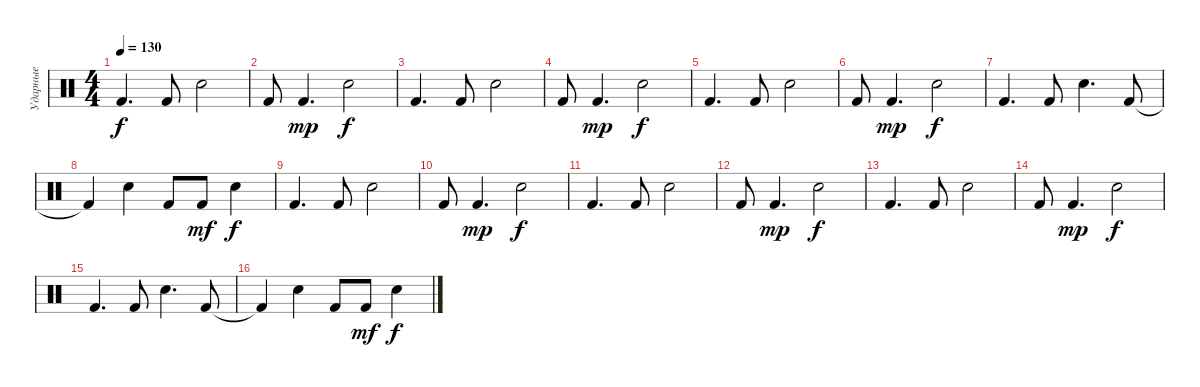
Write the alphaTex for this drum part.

\track ("Ударные" "Ударные") {instrument percussion}
\staff {score}
\articulation defaults
\ts (4 4)
\tempo 130
\clef neutral
\ks c "Kick (hit) 2".4{d dy f} "Kick (hit) 2".8 "Snare (hit) 2".2
|
"Kick (hit) 2".8 "Kick (hit) 2".4{d dy mp} "Snare (hit) 2".2{dy f} |
"Kick (hit) 2".4{d} "Kick (hit) 2".8 "Snare (hit) 2".2 |
"Kick (hit) 2".8 "Kick (hit) 2".4{d dy mp} "Snare (hit) 2".2{dy f} |
"Kick (hit) 2".4{d} "Kick (hit) 2".8 "Snare (hit) 2".2 |
"Kick (hit) 2".8 "Kick (hit) 2".4{d dy mp} "Snare (hit) 2".2{dy f} |
"Kick (hit) 2".4{d} "Kick (hit) 2".8 "Snare (hit) 2".4{d} "Kick (hit) 2".8 |
"Kick (hit) 2"{t}.4 "Snare (hit) 2".4 "Kick (hit) 2".8 "Kick (hit) 2".8{dy mf} "Snare (hit) 2".4{dy f} |
"Kick (hit) 2".4{d} "Kick (hit) 2".8 "Snare (hit) 2".2 |
"Kick (hit) 2".8 "Kick (hit) 2".4{d dy mp} "Snare (hit) 2".2{dy f} |
"Kick (hit) 2".4{d} "Kick (hit) 2".8 "Snare (hit) 2".2 |
"Kick (hit) 2".8 "Kick (hit) 2".4{d dy mp} "Snare (hit) 2".2{dy f} |
"Kick (hit) 2".4{d} "Kick (hit) 2".8 "Snare (hit) 2".2 |
"Kick (hit) 2".8 "Kick (hit) 2".4{d dy mp} "Snare (hit) 2".2{dy f} |
"Kick (hit) 2".4{d} "Kick (hit) 2".8 "Snare (hit) 2".4{d} "Kick (hit) 2".8 |
"Kick (hit) 2"{t}.4 "Snare (hit) 2".4 "Kick (hit) 2".8 "Kick (hit) 2".8{dy mf} "Snare (hit) 2".4{dy f}
